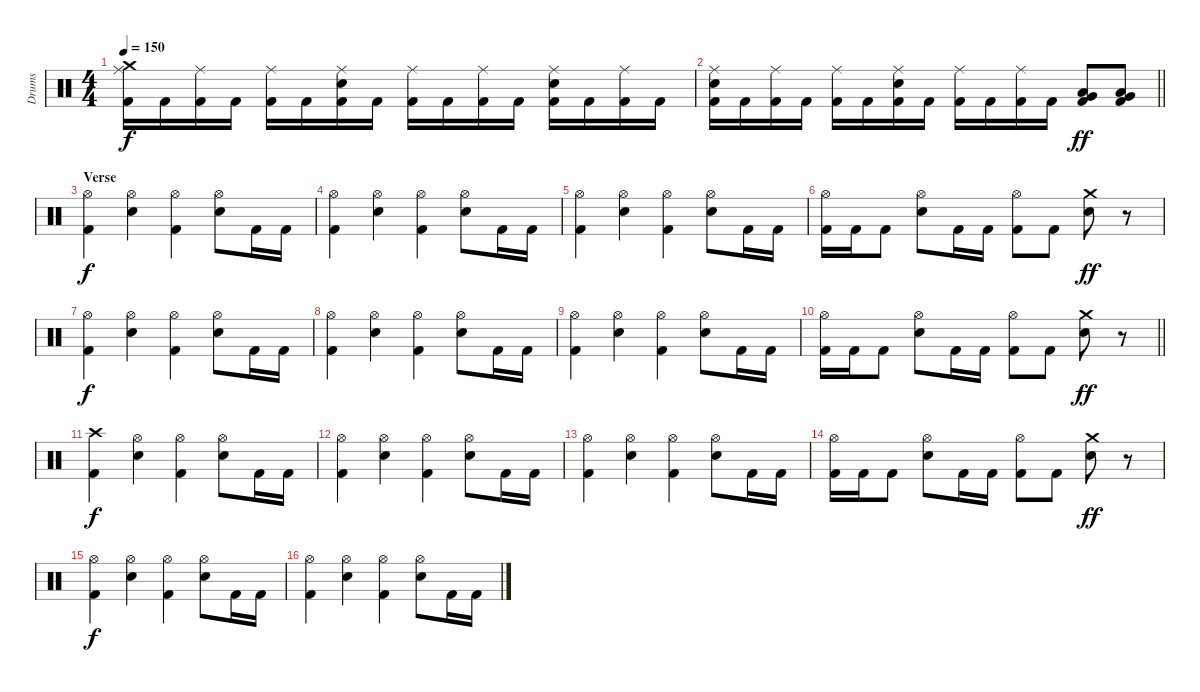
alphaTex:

\track ("Drums" "Drums") {instrument percussion}
\staff {score}
\articulation defaults
\ts (4 4)
\tempo 150
\clef neutral
\ks c
("Crash medium (hit)" "Ride (middle)" "Kick (hit) 2").16{dy f} "Kick (hit) 2".16 ("Ride (middle)" "Kick (hit) 2").16 "Kick (hit) 2".16 ("Ride (middle)" "Kick (hit) 2").16 "Kick (hit) 2".16 ("Ride (middle)" "Electric Snare (hit)" "Kick (hit) 2").16 "Kick (hit) 2".16 ("Ride (middle)" "Kick (hit) 2").16 "Kick (hit) 2".16 ("Ride (middle)" "Kick (hit) 2").16 "Kick (hit) 2".16 ("Ride (middle)" "Electric Snare (hit)" "Kick (hit) 2").16 "Kick (hit) 2".16 ("Ride (middle)" "Kick (hit) 2").16 "Kick (hit) 2".16 |
\barLineRight lightlight
("Ride (middle)" "Electric Snare (hit)" "Kick (hit) 2").16 "Kick (hit) 2".16 ("Ride (middle)" "Kick (hit) 2").16 "Kick (hit) 2".16 ("Ride (middle)" "Kick (hit) 2").16 "Kick (hit) 2".16 ("Ride (middle)" "Electric Snare (hit)" "Kick (hit) 2").16 "Kick (hit) 2".16 ("Ride (middle)" "Kick (hit) 2").16 "Kick (hit) 2".16 ("Ride (middle)" "Kick (hit) 2").16 "Kick (hit) 2".16 ("Low Tom (hit)" "Very Low Tom (hit)" "Kick (hit) 2").8{dy ff} ("Low Tom (hit)" "Very Low Tom (hit)" "Kick (hit) 2").8 |
\section ("" "Verse")
("Hi-Hat (open)" "Kick (hit) 2").4{dy f} ("Hi-Hat (open)" "Electric Snare (hit)").4 ("Hi-Hat (open)" "Kick (hit) 2").4 ("Hi-Hat (open)" "Electric Snare (hit)").8 "Kick (hit) 2".16 "Kick (hit) 2".16 |
("Hi-Hat (open)" "Kick (hit) 2").4 ("Hi-Hat (open)" "Electric Snare (hit)").4 ("Hi-Hat (open)" "Kick (hit) 2").4 ("Hi-Hat (open)" "Electric Snare (hit)").8 "Kick (hit) 2".16 "Kick (hit) 2".16 |
("Hi-Hat (open)" "Kick (hit) 2").4 ("Hi-Hat (open)" "Electric Snare (hit)").4 ("Hi-Hat (open)" "Kick (hit) 2").4 ("Hi-Hat (open)" "Electric Snare (hit)").8 "Kick (hit) 2".16 "Kick (hit) 2".16 |
("Hi-Hat (open)" "Kick (hit) 2").16 "Kick (hit) 2".16 "Kick (hit) 2".8 ("Hi-Hat (open)" "Electric Snare (hit)").8 "Kick (hit) 2".16 "Kick (hit) 2".16 ("Hi-Hat (open)" "Kick (hit) 2").8 "Kick (hit) 2".8 ("Crash medium (hit)" "Electric Snare (hit)").8{dy ff} r.8 |
("Hi-Hat (open)" "Kick (hit) 2").4{dy f} ("Hi-Hat (open)" "Electric Snare (hit)").4 ("Hi-Hat (open)" "Kick (hit) 2").4 ("Hi-Hat (open)" "Electric Snare (hit)").8 "Kick (hit) 2".16 "Kick (hit) 2".16 |
("Hi-Hat (open)" "Kick (hit) 2").4 ("Hi-Hat (open)" "Electric Snare (hit)").4 ("Hi-Hat (open)" "Kick (hit) 2").4 ("Hi-Hat (open)" "Electric Snare (hit)").8 "Kick (hit) 2".16 "Kick (hit) 2".16 |
("Hi-Hat (open)" "Kick (hit) 2").4 ("Hi-Hat (open)" "Electric Snare (hit)").4 ("Hi-Hat (open)" "Kick (hit) 2").4 ("Hi-Hat (open)" "Electric Snare (hit)").8 "Kick (hit) 2".16 "Kick (hit) 2".16 |
\barLineRight lightlight
("Hi-Hat (open)" "Kick (hit) 2").16 "Kick (hit) 2".16 "Kick (hit) 2".8 ("Hi-Hat (open)" "Electric Snare (hit)").8 "Kick (hit) 2".16 "Kick (hit) 2".16 ("Hi-Hat (open)" "Kick (hit) 2").8 "Kick (hit) 2".8 ("Crash medium (hit)" "Electric Snare (hit)").8{dy ff} r.8 |
("Crash high (hit)" "Kick (hit) 2").4{dy f} ("Hi-Hat (open)" "Electric Snare (hit)").4 ("Hi-Hat (open)" "Kick (hit) 2").4 ("Hi-Hat (open)" "Electric Snare (hit)").8 "Kick (hit) 2".16 "Kick (hit) 2".16 |
("Hi-Hat (open)" "Kick (hit) 2").4 ("Hi-Hat (open)" "Electric Snare (hit)").4 ("Hi-Hat (open)" "Kick (hit) 2").4 ("Hi-Hat (open)" "Electric Snare (hit)").8 "Kick (hit) 2".16 "Kick (hit) 2".16 |
("Hi-Hat (open)" "Kick (hit) 2").4 ("Hi-Hat (open)" "Electric Snare (hit)").4 ("Hi-Hat (open)" "Kick (hit) 2").4 ("Hi-Hat (open)" "Electric Snare (hit)").8 "Kick (hit) 2".16 "Kick (hit) 2".16 |
("Hi-Hat (open)" "Kick (hit) 2").16 "Kick (hit) 2".16 "Kick (hit) 2".8 ("Hi-Hat (open)" "Electric Snare (hit)").8 "Kick (hit) 2".16 "Kick (hit) 2".16 ("Hi-Hat (open)" "Kick (hit) 2").8 "Kick (hit) 2".8 ("Crash medium (hit)" "Electric Snare (hit)").8{dy ff} r.8 |
("Hi-Hat (open)" "Kick (hit) 2").4{dy f} ("Hi-Hat (open)" "Electric Snare (hit)").4 ("Hi-Hat (open)" "Kick (hit) 2").4 ("Hi-Hat (open)" "Electric Snare (hit)").8 "Kick (hit) 2".16 "Kick (hit) 2".16 |
("Hi-Hat (open)" "Kick (hit) 2").4 ("Hi-Hat (open)" "Electric Snare (hit)").4 ("Hi-Hat (open)" "Kick (hit) 2").4 ("Hi-Hat (open)" "Electric Snare (hit)").8 "Kick (hit) 2".16 "Kick (hit) 2".16
